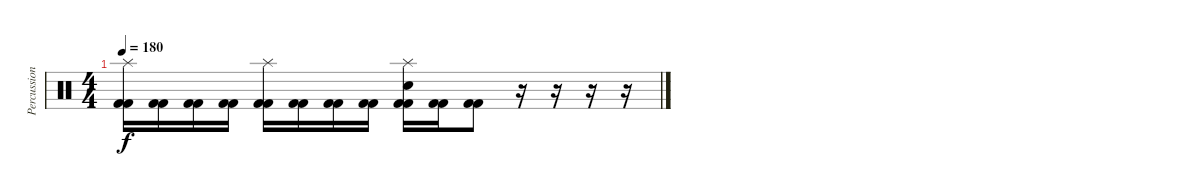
\track ("Percussion" "Percussion") {instrument percussion}
\staff {score}
\articulation defaults
\ts (4 4)
\tempo 180
\clef neutral
\ks c
("Splash (hit)" "Kick (hit) 2" "Kick (hit) 2").16{dy f} ("Kick (hit) 2" "Kick (hit) 2").16 ("Kick (hit) 2" "Kick (hit) 2").16 ("Kick (hit) 2" "Kick (hit) 2").16 ("Splash (hit)" "Kick (hit) 2" "Kick (hit) 2").16 ("Kick (hit) 2" "Kick (hit) 2").16 ("Kick (hit) 2" "Kick (hit) 2").16 ("Kick (hit) 2" "Kick (hit) 2").16 ("Splash (hit)" "Electric Snare (hit)" "Kick (hit) 2" "Kick (hit) 2").16 ("Kick (hit) 2" "Kick (hit) 2").16 ("Kick (hit) 2" "Kick (hit) 2").8 r.16 r.16 r.16 r.16
